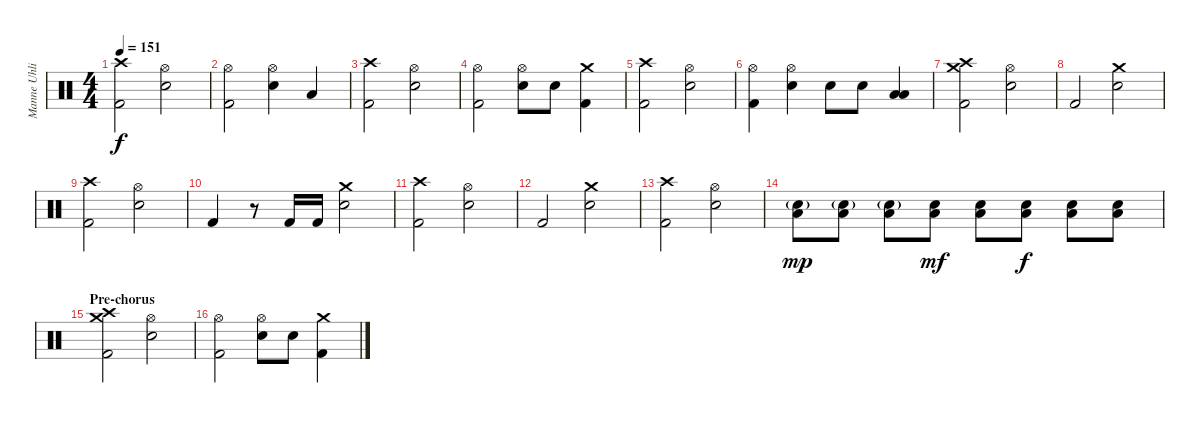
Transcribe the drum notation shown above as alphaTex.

\track ("Manne Uhlig" "Manne Uhli") {instrument percussion}
\staff {score}
\articulation defaults
\ts (4 4)
\tempo 151
\clef neutral
\ks c
("Crash high (hit)" "Kick (hit) 2").2{dy f} ("Hi-Hat (open)" "Snare (hit) 2").2 |
("Hi-Hat (open)" "Kick (hit) 2").2 ("Hi-Hat (open)" "Snare (hit) 2").4 "Low Tom (hit)".4 |
("Crash high (hit)" "Kick (hit) 2").2 ("Hi-Hat (open)" "Snare (hit) 2").2 |
("Hi-Hat (open)" "Kick (hit) 2").2 ("Hi-Hat (open)" "Snare (hit) 2").8 "Snare (hit) 2".8 ("Crash medium (hit)" "Kick (hit) 2").4 |
("Crash high (hit)" "Kick (hit) 2").2 ("Hi-Hat (open)" "Snare (hit) 2").2 |
("Hi-Hat (open)" "Kick (hit) 2").4 ("Hi-Hat (open)" "Snare (hit) 2").4 "Snare (hit) 2".8 "Snare (hit) 2".8 ("Low Tom (hit)" "Low Floor Tom (hit)").4 |
("Crash high (hit)" "Crash medium (hit)" "Kick (hit) 2").2 ("Hi-Hat (open)" "Snare (hit) 2").2 |
"Kick (hit) 2".2 ("Crash medium (hit)" "Snare (hit) 2").2 |
("Crash high (hit)" "Kick (hit) 2").2 ("Hi-Hat (open)" "Snare (hit) 2").2 |
"Kick (hit) 2".4 r.8 "Kick (hit) 2".16 "Kick (hit) 2".16 ("Crash medium (hit)" "Snare (hit) 2").2 |
("Crash high (hit)" "Kick (hit) 2").2 ("Hi-Hat (open)" "Snare (hit) 2").2 |
"Kick (hit) 2".2 ("Crash medium (hit)" "Snare (hit) 2").2 |
("Crash high (hit)" "Kick (hit) 2").2 ("Hi-Hat (open)" "Snare (hit) 2").2 |
("Snare (hit) 2"{g} "Low Floor Tom (hit)").8{dy mp} ("Snare (hit) 2"{g} "Low Floor Tom (hit)").8 ("Snare (hit) 2"{g} "Low Floor Tom (hit)").8 ("Snare (hit) 2" "Low Floor Tom (hit)").8{dy mf} ("Snare (hit) 2" "Low Floor Tom (hit)").8 ("Snare (hit) 2" "Low Floor Tom (hit)").8{dy f} ("Snare (hit) 2" "Low Floor Tom (hit)").8 ("Snare (hit) 2" "Low Floor Tom (hit)").8 |
\section ("" "Pre-chorus")
("Crash high (hit)" "Crash medium (hit)" "Kick (hit) 2").2 ("Hi-Hat (open)" "Snare (hit) 2").2 |
("Hi-Hat (open)" "Kick (hit) 2").2 ("Hi-Hat (open)" "Snare (hit) 2").8 "Snare (hit) 2".8 ("Crash medium (hit)" "Kick (hit) 2").4
